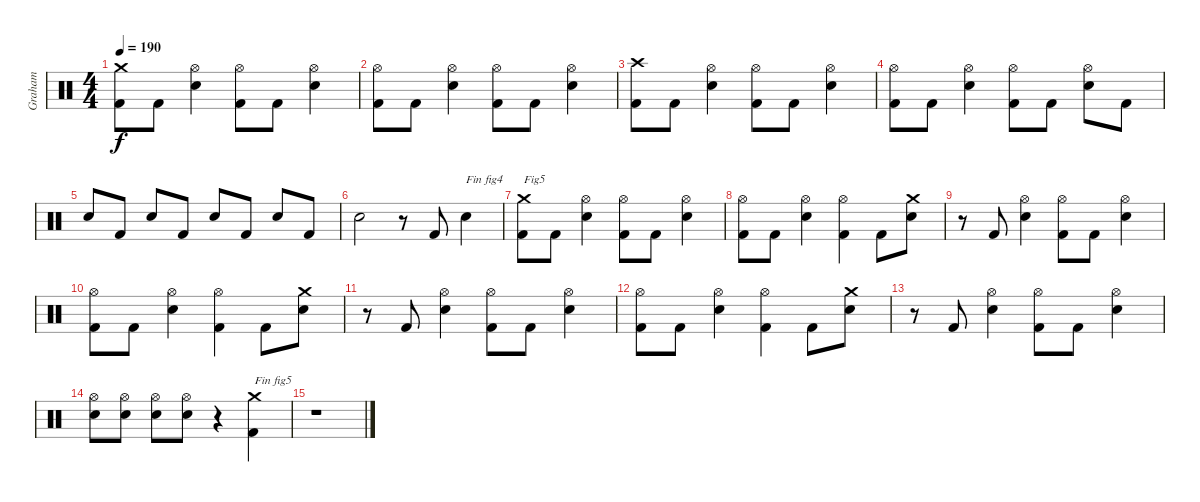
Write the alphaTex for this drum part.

\track ("Graham" "Graham") {instrument percussion}
\staff {score}
\articulation defaults
\ts (4 4)
\tempo 190
\clef neutral
\ks c
("Kick (hit) 2" "Crash medium (hit)").8{dy f} "Kick (hit) 2".8 ("Electric Snare (hit)" "Hi-Hat (open)").4 ("Kick (hit) 2" "Hi-Hat (open)").8 "Kick (hit) 2".8 ("Electric Snare (hit)" "Hi-Hat (open)").4 |
("Kick (hit) 2" "Hi-Hat (open)").8 "Kick (hit) 2".8 ("Electric Snare (hit)" "Hi-Hat (open)").4 ("Kick (hit) 2" "Hi-Hat (open)").8 "Kick (hit) 2".8 ("Electric Snare (hit)" "Hi-Hat (open)").4 |
("Kick (hit) 2" "Crash high (hit)").8 "Kick (hit) 2".8 ("Electric Snare (hit)" "Hi-Hat (open)").4 ("Kick (hit) 2" "Hi-Hat (open)").8 "Kick (hit) 2".8 ("Electric Snare (hit)" "Hi-Hat (open)").4 |
("Kick (hit) 2" "Hi-Hat (open)").8 "Kick (hit) 2".8 ("Electric Snare (hit)" "Hi-Hat (open)").4 ("Kick (hit) 2" "Hi-Hat (open)").8 "Kick (hit) 2".8 ("Electric Snare (hit)" "Hi-Hat (open)").8 "Kick (hit) 2".8 |
"Electric Snare (hit)".8 "Kick (hit) 2".8 "Electric Snare (hit)".8 "Kick (hit) 2".8 "Electric Snare (hit)".8 "Kick (hit) 2".8 "Electric Snare (hit)".8 "Kick (hit) 2".8 |
"Electric Snare (hit)".2 r.8 "Kick (hit) 2".8 "Electric Snare (hit)".4{txt "Fin fig4"} |
("Kick (hit) 2" "Crash medium (hit)").8{txt "Fig5"} "Kick (hit) 2".8 ("Electric Snare (hit)" "Hi-Hat (open)").4 ("Kick (hit) 2" "Hi-Hat (open)").8 "Kick (hit) 2".8 ("Electric Snare (hit)" "Hi-Hat (open)").4 |
("Kick (hit) 2" "Hi-Hat (open)").8 "Kick (hit) 2".8 ("Electric Snare (hit)" "Hi-Hat (open)").4 ("Kick (hit) 2" "Hi-Hat (open)").4 "Kick (hit) 2".8 ("Electric Snare (hit)" "Crash medium (hit)").8 |
r.8 "Kick (hit) 2".8 ("Electric Snare (hit)" "Hi-Hat (open)").4 ("Kick (hit) 2" "Hi-Hat (open)").8 "Kick (hit) 2".8 ("Electric Snare (hit)" "Hi-Hat (open)").4 |
("Kick (hit) 2" "Hi-Hat (open)").8 "Kick (hit) 2".8 ("Electric Snare (hit)" "Hi-Hat (open)").4 ("Kick (hit) 2" "Hi-Hat (open)").4 "Kick (hit) 2".8 ("Electric Snare (hit)" "Crash medium (hit)").8 |
r.8 "Kick (hit) 2".8 ("Electric Snare (hit)" "Hi-Hat (open)").4 ("Kick (hit) 2" "Hi-Hat (open)").8 "Kick (hit) 2".8 ("Electric Snare (hit)" "Hi-Hat (open)").4 |
("Kick (hit) 2" "Hi-Hat (open)").8 "Kick (hit) 2".8 ("Electric Snare (hit)" "Hi-Hat (open)").4 ("Kick (hit) 2" "Hi-Hat (open)").4 "Kick (hit) 2".8 ("Electric Snare (hit)" "Crash medium (hit)").8 |
r.8 "Kick (hit) 2".8 ("Electric Snare (hit)" "Hi-Hat (open)").4 ("Kick (hit) 2" "Hi-Hat (open)").8 "Kick (hit) 2".8 ("Electric Snare (hit)" "Hi-Hat (open)").4 |
("Electric Snare (hit)" "Hi-Hat (open)").8 ("Electric Snare (hit)" "Hi-Hat (open)").8 ("Electric Snare (hit)" "Hi-Hat (open)").8 ("Electric Snare (hit)" "Hi-Hat (open)").8 r.4 ("Kick (hit) 2" "Crash medium (hit)").4{txt "Fin fig5"} |
r.1
